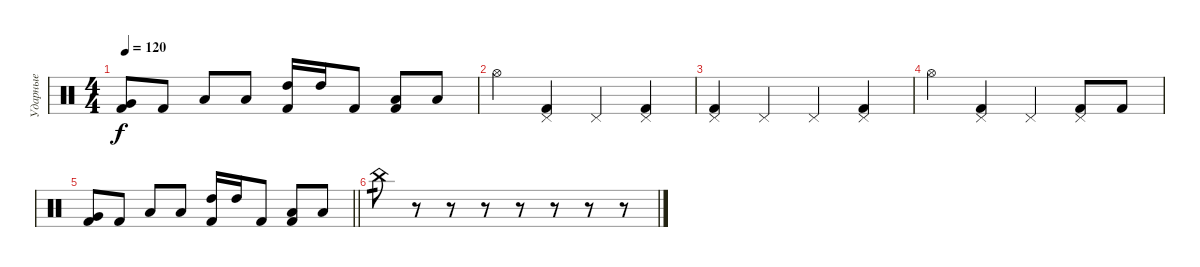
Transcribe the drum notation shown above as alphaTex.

\track ("Ударные" "Ударные") {instrument percussion}
\staff {score}
\articulation defaults
\ts (4 4)
\tempo 120
\clef neutral
\ks c
("Very Low Tom (hit)" "Kick (hit) 2").8{dy f} "Kick (hit) 2".8 "Low Tom (hit)".8 "Low Tom (hit)".8 ("High Tom (hit)" "Kick (hit) 2").16 "High Tom (hit)".16 "Kick (hit) 2".8 ("Low Tom (hit)" "Kick (hit) 2").8 "Low Floor Tom (hit)".8 |
"Hi-Hat (open)".4 ("Pedal Hi-Hat (hit)" "Kick (hit) 2").4 "Pedal Hi-Hat (hit)".4 ("Pedal Hi-Hat (hit)" "Kick (hit) 2").4 |
("Pedal Hi-Hat (hit)" "Kick (hit) 2").4 "Pedal Hi-Hat (hit)".4 "Pedal Hi-Hat (hit)".4 ("Pedal Hi-Hat (hit)" "Kick (hit) 2").4 |
"Hi-Hat (open)".4 ("Pedal Hi-Hat (hit)" "Kick (hit) 2").4 "Pedal Hi-Hat (hit)".4 ("Pedal Hi-Hat (hit)" "Kick (hit) 2").8 "Kick (hit) 2".8 |
\barLineRight lightlight
("Very Low Tom (hit)" "Kick (hit) 2").8 "Kick (hit) 2".8 "Low Tom (hit)".8 "Low Tom (hit)".8 ("High Tom (hit)" "Kick (hit) 2").16 "High Tom (hit)".16 "Kick (hit) 2".8 ("Low Tom (hit)" "Kick (hit) 2").8 "Low Floor Tom (hit)".8 |
"China (hit)".8{tp 1} r.8 r.8 r.8 r.8 r.8 r.8 r.8
